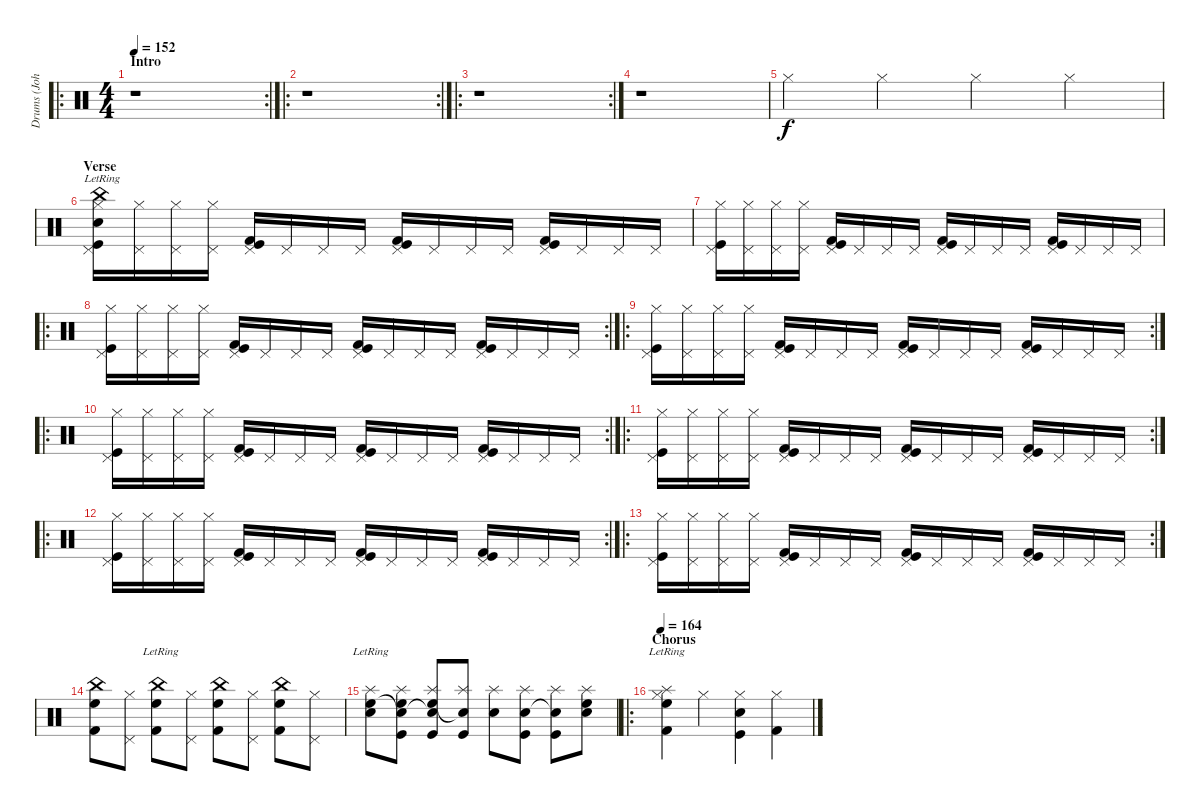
\track ("Drums (John)" "Drums (Joh") {instrument percussion}
\staff {score}
\articulation defaults
\ro
\rc 2
\ts (4 4)
\section ("" "Intro")
\tempo 152
\clef neutral
\ks c
r.1{dy f} |
\ro
\rc 2
r.1 |
\ro
\rc 2
r.1 |
r.1 |
"Hi-Hat (closed)".4 "Hi-Hat (closed)".4 "Hi-Hat (closed)".4 "Hi-Hat (closed)".4 |
\section ("" "Verse")
("China (hit)"{lr} "Electric Snare (hit)" "Pedal Hi-Hat (hit)" "Hi-Hat (closed)" "Kick (hit)").16 ("Pedal Hi-Hat (hit)" "Hi-Hat (closed)").16 ("Pedal Hi-Hat (hit)" "Hi-Hat (closed)").16 ("Pedal Hi-Hat (hit)" "Hi-Hat (closed)").16 ("Pedal Hi-Hat (hit)" "Kick (hit) 2" "Kick (hit)").16 "Pedal Hi-Hat (hit)".16 "Pedal Hi-Hat (hit)".16 "Pedal Hi-Hat (hit)".16 ("Pedal Hi-Hat (hit)" "Kick (hit) 2" "Kick (hit)").16 "Pedal Hi-Hat (hit)".16 "Pedal Hi-Hat (hit)".16 "Pedal Hi-Hat (hit)".16 ("Pedal Hi-Hat (hit)" "Kick (hit) 2" "Kick (hit)").16 "Pedal Hi-Hat (hit)".16 "Pedal Hi-Hat (hit)".16 "Pedal Hi-Hat (hit)".16 |
("Pedal Hi-Hat (hit)" "Hi-Hat (closed)" "Kick (hit)").16 ("Pedal Hi-Hat (hit)" "Hi-Hat (closed)").16 ("Pedal Hi-Hat (hit)" "Hi-Hat (closed)").16 ("Pedal Hi-Hat (hit)" "Hi-Hat (closed)").16 ("Pedal Hi-Hat (hit)" "Kick (hit) 2" "Kick (hit)").16 "Pedal Hi-Hat (hit)".16 "Pedal Hi-Hat (hit)".16 "Pedal Hi-Hat (hit)".16 ("Pedal Hi-Hat (hit)" "Kick (hit) 2" "Kick (hit)").16 "Pedal Hi-Hat (hit)".16 "Pedal Hi-Hat (hit)".16 "Pedal Hi-Hat (hit)".16 ("Pedal Hi-Hat (hit)" "Kick (hit) 2" "Kick (hit)").16 "Pedal Hi-Hat (hit)".16 "Pedal Hi-Hat (hit)".16 "Pedal Hi-Hat (hit)".16 |
\ro
\rc 2
("Pedal Hi-Hat (hit)" "Hi-Hat (closed)" "Kick (hit)").16 ("Pedal Hi-Hat (hit)" "Hi-Hat (closed)").16 ("Pedal Hi-Hat (hit)" "Hi-Hat (closed)").16 ("Pedal Hi-Hat (hit)" "Hi-Hat (closed)").16 ("Pedal Hi-Hat (hit)" "Kick (hit) 2" "Kick (hit)").16 "Pedal Hi-Hat (hit)".16 "Pedal Hi-Hat (hit)".16 "Pedal Hi-Hat (hit)".16 ("Pedal Hi-Hat (hit)" "Kick (hit) 2" "Kick (hit)").16 "Pedal Hi-Hat (hit)".16 "Pedal Hi-Hat (hit)".16 "Pedal Hi-Hat (hit)".16 ("Pedal Hi-Hat (hit)" "Kick (hit) 2" "Kick (hit)").16 "Pedal Hi-Hat (hit)".16 "Pedal Hi-Hat (hit)".16 "Pedal Hi-Hat (hit)".16 |
\ro
\rc 2
("Pedal Hi-Hat (hit)" "Hi-Hat (closed)" "Kick (hit)").16 ("Pedal Hi-Hat (hit)" "Hi-Hat (closed)").16 ("Pedal Hi-Hat (hit)" "Hi-Hat (closed)").16 ("Pedal Hi-Hat (hit)" "Hi-Hat (closed)").16 ("Pedal Hi-Hat (hit)" "Kick (hit) 2" "Kick (hit)").16 "Pedal Hi-Hat (hit)".16 "Pedal Hi-Hat (hit)".16 "Pedal Hi-Hat (hit)".16 ("Pedal Hi-Hat (hit)" "Kick (hit) 2" "Kick (hit)").16 "Pedal Hi-Hat (hit)".16 "Pedal Hi-Hat (hit)".16 "Pedal Hi-Hat (hit)".16 ("Pedal Hi-Hat (hit)" "Kick (hit) 2" "Kick (hit)").16 "Pedal Hi-Hat (hit)".16 "Pedal Hi-Hat (hit)".16 "Pedal Hi-Hat (hit)".16 |
\ro
\rc 2
("Pedal Hi-Hat (hit)" "Hi-Hat (closed)" "Kick (hit)").16 ("Pedal Hi-Hat (hit)" "Hi-Hat (closed)").16 ("Pedal Hi-Hat (hit)" "Hi-Hat (closed)").16 ("Pedal Hi-Hat (hit)" "Hi-Hat (closed)").16 ("Pedal Hi-Hat (hit)" "Kick (hit) 2" "Kick (hit)").16 "Pedal Hi-Hat (hit)".16 "Pedal Hi-Hat (hit)".16 "Pedal Hi-Hat (hit)".16 ("Pedal Hi-Hat (hit)" "Kick (hit) 2" "Kick (hit)").16 "Pedal Hi-Hat (hit)".16 "Pedal Hi-Hat (hit)".16 "Pedal Hi-Hat (hit)".16 ("Pedal Hi-Hat (hit)" "Kick (hit) 2" "Kick (hit)").16 "Pedal Hi-Hat (hit)".16 "Pedal Hi-Hat (hit)".16 "Pedal Hi-Hat (hit)".16 |
\ro
\rc 2
("Pedal Hi-Hat (hit)" "Hi-Hat (closed)" "Kick (hit)").16 ("Pedal Hi-Hat (hit)" "Hi-Hat (closed)").16 ("Pedal Hi-Hat (hit)" "Hi-Hat (closed)").16 ("Pedal Hi-Hat (hit)" "Hi-Hat (closed)").16 ("Pedal Hi-Hat (hit)" "Kick (hit) 2" "Kick (hit)").16 "Pedal Hi-Hat (hit)".16 "Pedal Hi-Hat (hit)".16 "Pedal Hi-Hat (hit)".16 ("Pedal Hi-Hat (hit)" "Kick (hit) 2" "Kick (hit)").16 "Pedal Hi-Hat (hit)".16 "Pedal Hi-Hat (hit)".16 "Pedal Hi-Hat (hit)".16 ("Pedal Hi-Hat (hit)" "Kick (hit) 2" "Kick (hit)").16 "Pedal Hi-Hat (hit)".16 "Pedal Hi-Hat (hit)".16 "Pedal Hi-Hat (hit)".16 |
\ro
\rc 2
("Pedal Hi-Hat (hit)" "Hi-Hat (closed)" "Kick (hit)").16 ("Pedal Hi-Hat (hit)" "Hi-Hat (closed)").16 ("Pedal Hi-Hat (hit)" "Hi-Hat (closed)").16 ("Pedal Hi-Hat (hit)" "Hi-Hat (closed)").16 ("Pedal Hi-Hat (hit)" "Kick (hit) 2" "Kick (hit)").16 "Pedal Hi-Hat (hit)".16 "Pedal Hi-Hat (hit)".16 "Pedal Hi-Hat (hit)".16 ("Pedal Hi-Hat (hit)" "Kick (hit) 2" "Kick (hit)").16 "Pedal Hi-Hat (hit)".16 "Pedal Hi-Hat (hit)".16 "Pedal Hi-Hat (hit)".16 ("Pedal Hi-Hat (hit)" "Kick (hit) 2" "Kick (hit)").16 "Pedal Hi-Hat (hit)".16 "Pedal Hi-Hat (hit)".16 "Pedal Hi-Hat (hit)".16 |
\ro
\rc 2
("Pedal Hi-Hat (hit)" "Hi-Hat (closed)" "Kick (hit)").16 ("Pedal Hi-Hat (hit)" "Hi-Hat (closed)").16 ("Pedal Hi-Hat (hit)" "Hi-Hat (closed)").16 ("Pedal Hi-Hat (hit)" "Hi-Hat (closed)").16 ("Pedal Hi-Hat (hit)" "Kick (hit) 2" "Kick (hit)").16 "Pedal Hi-Hat (hit)".16 "Pedal Hi-Hat (hit)".16 "Pedal Hi-Hat (hit)".16 ("Pedal Hi-Hat (hit)" "Kick (hit) 2" "Kick (hit)").16 "Pedal Hi-Hat (hit)".16 "Pedal Hi-Hat (hit)".16 "Pedal Hi-Hat (hit)".16 ("Pedal Hi-Hat (hit)" "Kick (hit) 2" "Kick (hit)").16 "Pedal Hi-Hat (hit)".16 "Pedal Hi-Hat (hit)".16 "Pedal Hi-Hat (hit)".16 |
("China (hit)" "Kick (hit) 2" "High Floor Tom (hit)").8 ("Hi-Hat (closed)" "Pedal Hi-Hat (hit)").8 ("China (hit)"{lr} "Kick (hit) 2" "High Floor Tom (hit)").8 ("Hi-Hat (closed)" "Pedal Hi-Hat (hit)").8 ("China (hit)" "Kick (hit) 2" "High Floor Tom (hit)").8 ("Hi-Hat (closed)" "Pedal Hi-Hat (hit)").8 ("China (hit)" "Kick (hit) 2" "High Floor Tom (hit)").8 ("Hi-Hat (closed)" "Pedal Hi-Hat (hit)").8 |
("Splash (hit)"{lr} "Electric Snare (hit)" "High Floor Tom (hit)").8 ("Splash (hit)" "High Floor Tom (hit)" "Snare (hit)"{t} "Kick (hit)").8 ("Splash (hit)" "High Floor Tom (hit)" "Snare (hit)"{t} "Kick (hit)").8 ("Splash (hit)" "Snare (hit)"{t} "Kick (hit)").8 ("Splash (hit)" "Electric Snare (hit)").8 ("Splash (hit)" "Electric Snare (hit)" "Kick (hit)").8 ("Splash (hit)" "Snare (hit)"{t} "Kick (hit)").8 ("Splash (hit)" "Electric Snare (hit)" "High Floor Tom (hit)").8 |
\ro
\section ("" "Chorus")
\tempo 164
("Splash (hit)"{lr} "Hi-Hat (closed)" "Kick (hit) 2" "High Floor Tom (hit)").4 "Hi-Hat (closed)".4 ("Hi-Hat (closed)" "Electric Snare (hit)" "Kick (hit)").4 ("Hi-Hat (closed)" "Kick (hit) 2").4
